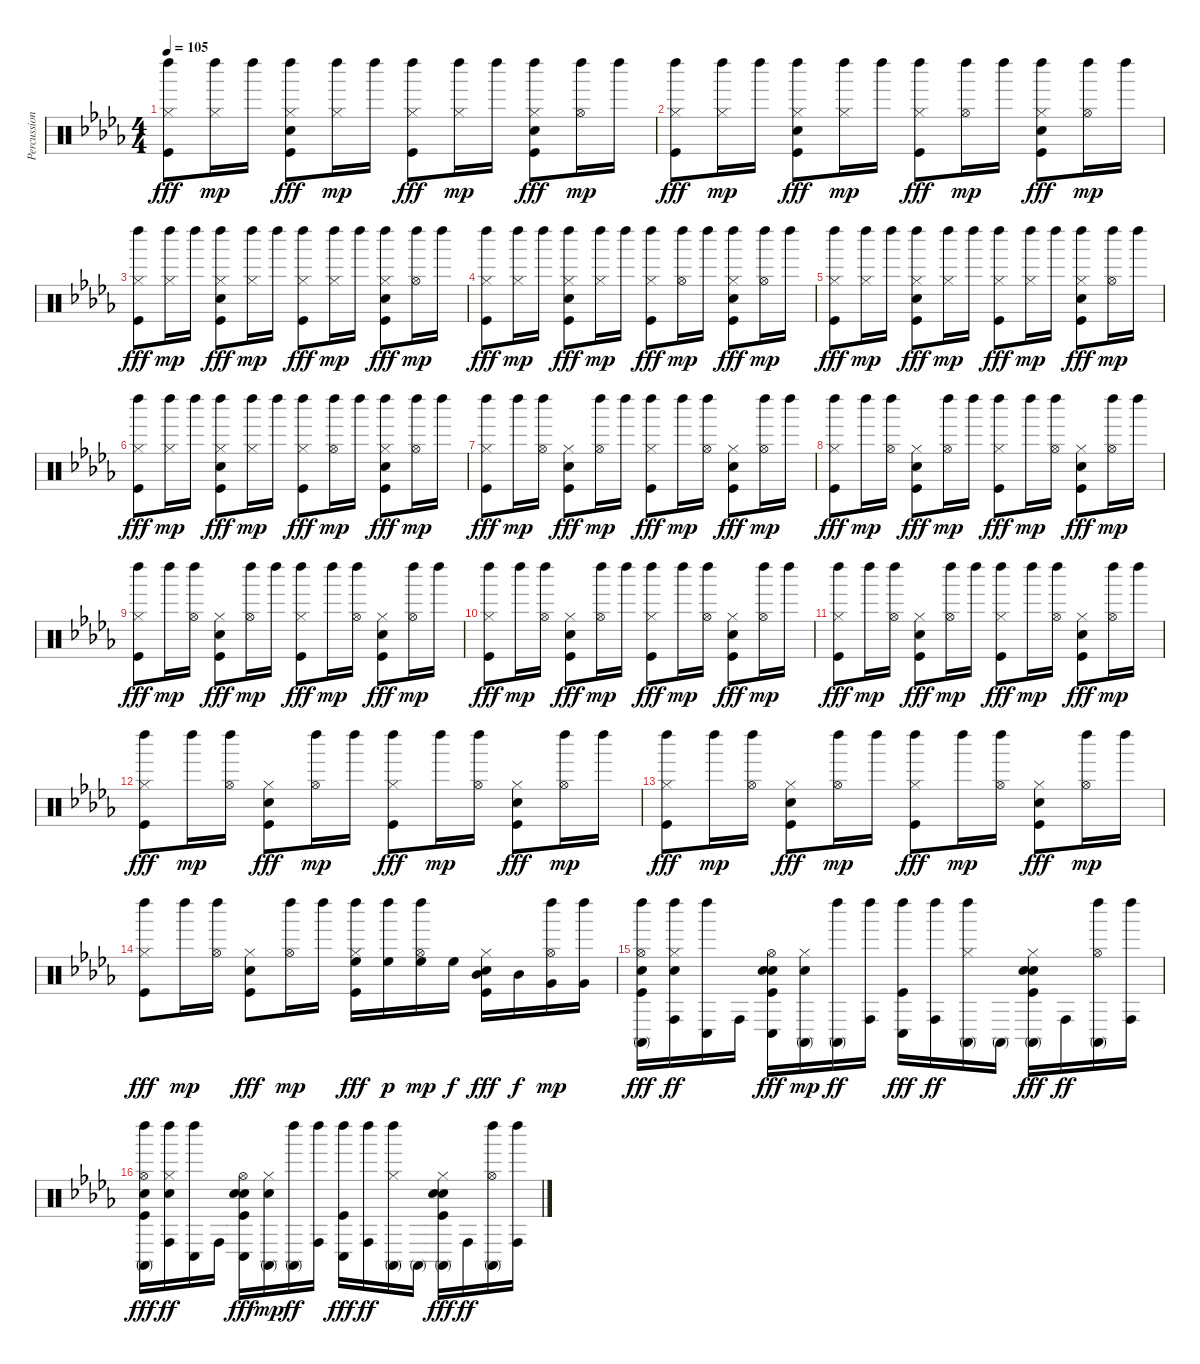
\track ("Percussion" "Percussion") {instrument percussion}
\staff {score}
\articulation defaults
\ts (4 4)
\tempo 105
\clef neutral
\ks db
("Hi-Hat (closed)" "Left Maraca (hit)" "Kick (hit)").8{dy fff} ("Hi-Hat (closed)" "Left Maraca (hit)").16{dy mp} "Left Maraca (hit)".16 ("Hi-Hat (closed)" "Left Maraca (hit)" "Snare (hit) 2" "Kick (hit)").8{dy fff} ("Hi-Hat (closed)" "Left Maraca (hit)").16{dy mp} "Left Maraca (hit)".16 ("Hi-Hat (closed)" "Left Maraca (hit)" "Kick (hit)").8{dy fff} ("Hi-Hat (closed)" "Left Maraca (hit)").16{dy mp} "Left Maraca (hit)".16 ("Hi-Hat (closed)" "Left Maraca (hit)" "Snare (hit) 2" "Kick (hit)").8{dy fff} ("Hi-Hat (open)" "Left Maraca (hit)").16{dy mp} "Left Maraca (hit)".16 |
("Hi-Hat (closed)" "Left Maraca (hit)" "Kick (hit)").8{dy fff} ("Hi-Hat (closed)" "Left Maraca (hit)").16{dy mp} "Left Maraca (hit)".16 ("Hi-Hat (closed)" "Left Maraca (hit)" "Snare (hit) 2" "Kick (hit)").8{dy fff} ("Hi-Hat (closed)" "Left Maraca (hit)").16{dy mp} "Left Maraca (hit)".16 ("Hi-Hat (closed)" "Left Maraca (hit)" "Kick (hit)").8{dy fff} ("Hi-Hat (open)" "Left Maraca (hit)").16{dy mp} "Left Maraca (hit)".16 ("Hi-Hat (closed)" "Left Maraca (hit)" "Snare (hit) 2" "Kick (hit)").8{dy fff} ("Hi-Hat (open)" "Left Maraca (hit)").16{dy mp} "Left Maraca (hit)".16 |
("Hi-Hat (closed)" "Left Maraca (hit)" "Kick (hit)").8{dy fff} ("Hi-Hat (closed)" "Left Maraca (hit)").16{dy mp} "Left Maraca (hit)".16 ("Hi-Hat (closed)" "Left Maraca (hit)" "Snare (hit) 2" "Kick (hit)").8{dy fff} ("Hi-Hat (closed)" "Left Maraca (hit)").16{dy mp} "Left Maraca (hit)".16 ("Hi-Hat (closed)" "Left Maraca (hit)" "Kick (hit)").8{dy fff} ("Hi-Hat (closed)" "Left Maraca (hit)").16{dy mp} "Left Maraca (hit)".16 ("Hi-Hat (closed)" "Left Maraca (hit)" "Snare (hit) 2" "Kick (hit)").8{dy fff} ("Hi-Hat (open)" "Left Maraca (hit)").16{dy mp} "Left Maraca (hit)".16 |
("Hi-Hat (closed)" "Left Maraca (hit)" "Kick (hit)").8{dy fff} ("Hi-Hat (closed)" "Left Maraca (hit)").16{dy mp} "Left Maraca (hit)".16 ("Hi-Hat (closed)" "Left Maraca (hit)" "Snare (hit) 2" "Kick (hit)").8{dy fff} ("Hi-Hat (closed)" "Left Maraca (hit)").16{dy mp} "Left Maraca (hit)".16 ("Hi-Hat (closed)" "Left Maraca (hit)" "Kick (hit)").8{dy fff} ("Hi-Hat (open)" "Left Maraca (hit)").16{dy mp} "Left Maraca (hit)".16 ("Hi-Hat (closed)" "Left Maraca (hit)" "Snare (hit) 2" "Kick (hit)").8{dy fff} ("Hi-Hat (open)" "Left Maraca (hit)").16{dy mp} "Left Maraca (hit)".16 |
("Hi-Hat (closed)" "Left Maraca (hit)" "Kick (hit)").8{dy fff} ("Hi-Hat (closed)" "Left Maraca (hit)").16{dy mp} "Left Maraca (hit)".16 ("Hi-Hat (closed)" "Left Maraca (hit)" "Snare (hit) 2" "Kick (hit)").8{dy fff} ("Hi-Hat (closed)" "Left Maraca (hit)").16{dy mp} "Left Maraca (hit)".16 ("Hi-Hat (closed)" "Left Maraca (hit)" "Kick (hit)").8{dy fff} ("Hi-Hat (closed)" "Left Maraca (hit)").16{dy mp} "Left Maraca (hit)".16 ("Hi-Hat (closed)" "Left Maraca (hit)" "Snare (hit) 2" "Kick (hit)").8{dy fff} ("Hi-Hat (open)" "Left Maraca (hit)").16{dy mp} "Left Maraca (hit)".16 |
("Hi-Hat (closed)" "Left Maraca (hit)" "Kick (hit)").8{dy fff} ("Hi-Hat (closed)" "Left Maraca (hit)").16{dy mp} "Left Maraca (hit)".16 ("Hi-Hat (closed)" "Left Maraca (hit)" "Snare (hit) 2" "Kick (hit)").8{dy fff} ("Hi-Hat (closed)" "Left Maraca (hit)").16{dy mp} "Left Maraca (hit)".16 ("Hi-Hat (closed)" "Left Maraca (hit)" "Kick (hit)").8{dy fff} ("Hi-Hat (open)" "Left Maraca (hit)").16{dy mp} "Left Maraca (hit)".16 ("Hi-Hat (closed)" "Left Maraca (hit)" "Snare (hit) 2" "Kick (hit)").8{dy fff} ("Hi-Hat (open)" "Left Maraca (hit)").16{dy mp} "Left Maraca (hit)".16 |
("Hi-Hat (closed)" "Left Maraca (hit)" "Kick (hit)").8{dy fff} "Left Maraca (hit)".16{dy mp} ("Hi-Hat (open)" "Left Maraca (hit)").16 ("Hi-Hat (closed)" "Snare (hit) 2" "Kick (hit)").8{dy fff} ("Hi-Hat (open)" "Left Maraca (hit)").16{dy mp} "Left Maraca (hit)".16 ("Hi-Hat (closed)" "Left Maraca (hit)" "Kick (hit)").8{dy fff} "Left Maraca (hit)".16{dy mp} ("Hi-Hat (open)" "Left Maraca (hit)").16 ("Hi-Hat (closed)" "Snare (hit) 2" "Kick (hit)").8{dy fff} ("Hi-Hat (open)" "Left Maraca (hit)").16{dy mp} "Left Maraca (hit)".16 |
("Hi-Hat (closed)" "Left Maraca (hit)" "Kick (hit)").8{dy fff} "Left Maraca (hit)".16{dy mp} ("Hi-Hat (open)" "Left Maraca (hit)").16 ("Hi-Hat (closed)" "Snare (hit) 2" "Kick (hit)").8{dy fff} ("Hi-Hat (open)" "Left Maraca (hit)").16{dy mp} "Left Maraca (hit)".16 ("Hi-Hat (closed)" "Left Maraca (hit)" "Kick (hit)").8{dy fff} "Left Maraca (hit)".16{dy mp} ("Hi-Hat (open)" "Left Maraca (hit)").16 ("Hi-Hat (closed)" "Snare (hit) 2" "Kick (hit)").8{dy fff} ("Hi-Hat (open)" "Left Maraca (hit)").16{dy mp} "Left Maraca (hit)".16 |
("Hi-Hat (closed)" "Left Maraca (hit)" "Kick (hit)").8{dy fff} "Left Maraca (hit)".16{dy mp} ("Hi-Hat (open)" "Left Maraca (hit)").16 ("Hi-Hat (closed)" "Snare (hit) 2" "Kick (hit)").8{dy fff} ("Hi-Hat (open)" "Left Maraca (hit)").16{dy mp} "Left Maraca (hit)".16 ("Hi-Hat (closed)" "Left Maraca (hit)" "Kick (hit)").8{dy fff} "Left Maraca (hit)".16{dy mp} ("Hi-Hat (open)" "Left Maraca (hit)").16 ("Hi-Hat (closed)" "Snare (hit) 2" "Kick (hit)").8{dy fff} ("Hi-Hat (open)" "Left Maraca (hit)").16{dy mp} "Left Maraca (hit)".16 |
("Hi-Hat (closed)" "Left Maraca (hit)" "Kick (hit)").8{dy fff} "Left Maraca (hit)".16{dy mp} ("Hi-Hat (open)" "Left Maraca (hit)").16 ("Hi-Hat (closed)" "Snare (hit) 2" "Kick (hit)").8{dy fff} ("Hi-Hat (open)" "Left Maraca (hit)").16{dy mp} "Left Maraca (hit)".16 ("Hi-Hat (closed)" "Left Maraca (hit)" "Kick (hit)").8{dy fff} "Left Maraca (hit)".16{dy mp} ("Hi-Hat (open)" "Left Maraca (hit)").16 ("Hi-Hat (closed)" "Snare (hit) 2" "Kick (hit)").8{dy fff} ("Hi-Hat (open)" "Left Maraca (hit)").16{dy mp} "Left Maraca (hit)".16 |
("Hi-Hat (closed)" "Left Maraca (hit)" "Kick (hit)").8{dy fff} "Left Maraca (hit)".16{dy mp} ("Hi-Hat (open)" "Left Maraca (hit)").16 ("Hi-Hat (closed)" "Snare (hit) 2" "Kick (hit)").8{dy fff} ("Hi-Hat (open)" "Left Maraca (hit)").16{dy mp} "Left Maraca (hit)".16 ("Hi-Hat (closed)" "Left Maraca (hit)" "Kick (hit)").8{dy fff} "Left Maraca (hit)".16{dy mp} ("Hi-Hat (open)" "Left Maraca (hit)").16 ("Hi-Hat (closed)" "Snare (hit) 2" "Kick (hit)").8{dy fff} ("Hi-Hat (open)" "Left Maraca (hit)").16{dy mp} "Left Maraca (hit)".16 |
("Hi-Hat (closed)" "Left Maraca (hit)" "Kick (hit)").8{dy fff} "Left Maraca (hit)".16{dy mp} ("Hi-Hat (open)" "Left Maraca (hit)").16 ("Hi-Hat (closed)" "Snare (hit) 2" "Kick (hit)").8{dy fff} ("Hi-Hat (open)" "Left Maraca (hit)").16{dy mp} "Left Maraca (hit)".16 ("Hi-Hat (closed)" "Left Maraca (hit)" "Kick (hit)").8{dy fff} "Left Maraca (hit)".16{dy mp} ("Hi-Hat (open)" "Left Maraca (hit)").16 ("Hi-Hat (closed)" "Snare (hit) 2" "Kick (hit)").8{dy fff} ("Hi-Hat (open)" "Left Maraca (hit)").16{dy mp} "Left Maraca (hit)".16 |
("Hi-Hat (closed)" "Left Maraca (hit)" "Kick (hit)").8{dy fff} "Left Maraca (hit)".16{dy mp} ("Hi-Hat (open)" "Left Maraca (hit)").16 ("Hi-Hat (closed)" "Snare (hit) 2" "Kick (hit)").8{dy fff} ("Hi-Hat (open)" "Left Maraca (hit)").16{dy mp} "Left Maraca (hit)".16 ("Hi-Hat (closed)" "Left Maraca (hit)" "Kick (hit)").8{dy fff} "Left Maraca (hit)".16{dy mp} ("Hi-Hat (open)" "Left Maraca (hit)").16 ("Hi-Hat (closed)" "Snare (hit) 2" "Kick (hit)").8{dy fff} ("Hi-Hat (open)" "Left Maraca (hit)").16{dy mp} "Left Maraca (hit)".16 |
("Hi-Hat (closed)" "Left Maraca (hit)" "Kick (hit)").8{dy fff} "Left Maraca (hit)".16{dy mp} ("Hi-Hat (open)" "Left Maraca (hit)").16 ("Hi-Hat (closed)" "Snare (hit) 2" "Kick (hit)").8{dy fff} ("Hi-Hat (open)" "Left Maraca (hit)").16{dy mp} "Left Maraca (hit)".16 ("Hi-Hat (closed)" "Left Maraca (hit)" "High Floor Tom (hit)" "Kick (hit)").16{dy fff} ("Left Maraca (hit)" "High Floor Tom (hit)").16{dy p} ("Hi-Hat (open)" "Left Maraca (hit)" "High Floor Tom (hit)").16{dy mp} "High Floor Tom (hit)".16{dy f} ("Hi-Hat (closed)" "Mid Tom (hit)" "Snare (hit) 2" "Kick (hit)").16{dy fff} "Mid Tom (hit)".16{dy f} ("Hi-Hat (open)" "Left Maraca (hit)" "Very Low Tom (hit)").16{dy mp} ("Left Maraca (hit)" "Very Low Tom (hit)").16 |
("Hi-Hat (open)" "Left Maraca (hit)" "Conga high (mute)" "Hand Clap (hit)" "Kick (hit)").16{dy fff} ("Hi-Hat (closed)" "Left Maraca (hit)" "Conga high (hit)" "Hand Clap (hit)").16{dy ff} ("Left Maraca (hit)" "Conga low (hit)").16 "Conga high (hit)".16 ("Hi-Hat (open)" "Conga low (hit)" "Hand Clap (hit)" "Snare (hit) 2" "Kick (hit)").16{dy fff} ("Hi-Hat (closed)" "Conga high (mute)" "Hand Clap (hit)").16{dy mp} ("Left Maraca (hit)" "Conga high (mute)").16{dy ff} ("Left Maraca (hit)" "Conga high (hit)").16 ("Left Maraca (hit)" "Conga low (hit)" "Kick (hit)").16{dy fff} ("Left Maraca (hit)" "Conga high (hit)").16{dy ff} ("Hi-Hat (closed)" "Left Maraca (hit)" "Conga high (mute)").16 "Conga high (mute)".16 ("Hi-Hat (closed)" "Conga high (mute)" "Hand Clap (hit)" "Snare (hit) 2" "Kick (hit)").16{dy fff} "Conga high (hit)".16{dy ff} ("Hi-Hat (open)" "Left Maraca (hit)" "Conga high (mute)").16 ("Left Maraca (hit)" "Conga high (hit)").16 |
("Hi-Hat (open)" "Left Maraca (hit)" "Conga high (mute)" "Hand Clap (hit)" "Kick (hit)").16{dy fff} ("Hi-Hat (closed)" "Left Maraca (hit)" "Conga high (hit)" "Hand Clap (hit)").16{dy ff} ("Left Maraca (hit)" "Conga low (hit)").16 "Conga high (hit)".16 ("Hi-Hat (open)" "Conga low (hit)" "Hand Clap (hit)" "Snare (hit) 2" "Kick (hit)").16{dy fff} ("Hi-Hat (closed)" "Conga high (mute)" "Hand Clap (hit)").16{dy mp} ("Left Maraca (hit)" "Conga high (mute)").16{dy ff} ("Left Maraca (hit)" "Conga high (hit)").16 ("Left Maraca (hit)" "Conga low (hit)" "Kick (hit)").16{dy fff} ("Left Maraca (hit)" "Conga high (hit)").16{dy ff} ("Hi-Hat (closed)" "Left Maraca (hit)" "Conga high (mute)").16 "Conga high (mute)".16 ("Hi-Hat (closed)" "Conga high (mute)" "Hand Clap (hit)" "Snare (hit) 2" "Kick (hit)").16{dy fff} "Conga high (hit)".16{dy ff} ("Hi-Hat (open)" "Left Maraca (hit)" "Conga high (mute)").16 ("Left Maraca (hit)" "Conga high (hit)").16
